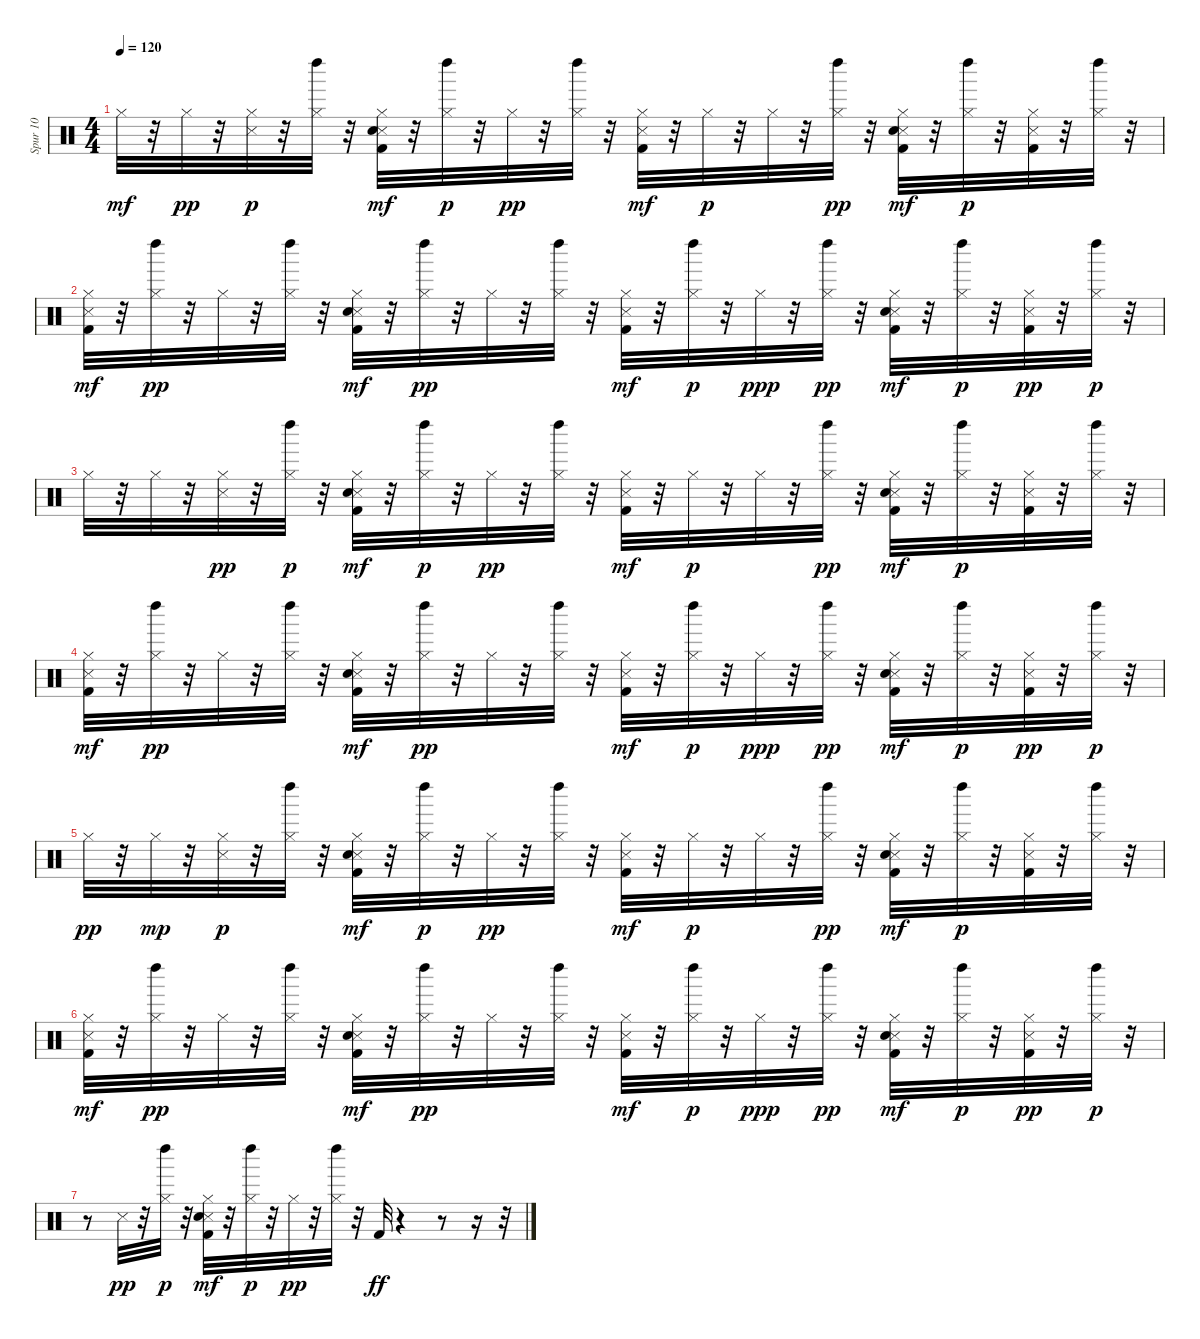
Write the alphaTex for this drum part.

\track ("Spur 10" "Spur 10") {instrument percussion}
\staff {score}
\articulation defaults
\ts (4 4)
\tempo 120
\clef neutral
\ks c "Hi-Hat (closed)".32{dy mf}
r.32 "Hi-Hat (closed)".32{dy pp} r.32 ("Snare (side stick) 3" "Hi-Hat (closed)").32{dy p} r.32 ("Hi-Hat (closed)" "Left Maraca (hit)").32 r.32 ("Kick (hit) 2" "Snare (side stick) 3" "Hand Clap (hit)" "Hi-Hat (closed)").32{dy mf} r.32 ("Hi-Hat (closed)" "Left Maraca (hit)").32{dy p} r.32 "Hi-Hat (closed)".32{dy pp} r.32 ("Hi-Hat (closed)" "Left Maraca (hit)").32 r.32 ("Kick (hit) 2" "Snare (side stick) 3" "Hi-Hat (closed)").32{dy mf} r.32 "Hi-Hat (closed)".32{dy p} r.32 "Hi-Hat (closed)".32 r.32 ("Hi-Hat (closed)" "Left Maraca (hit)").32{dy pp} r.32 ("Kick (hit) 2" "Snare (side stick) 3" "Hand Clap (hit)" "Hi-Hat (closed)").32{dy mf} r.32 ("Hi-Hat (closed)" "Left Maraca (hit)").32{dy p} r.32 ("Kick (hit) 2" "Snare (side stick) 3" "Hi-Hat (closed)").32 r.32 ("Hi-Hat (closed)" "Left Maraca (hit)").32 r.32 |
("Kick (hit) 2" "Snare (side stick) 3" "Hi-Hat (closed)").32{dy mf} r.32 ("Hi-Hat (closed)" "Left Maraca (hit)").32{dy pp} r.32 "Hi-Hat (closed)".32 r.32 ("Hi-Hat (closed)" "Left Maraca (hit)").32 r.32 ("Kick (hit) 2" "Snare (side stick) 3" "Hand Clap (hit)" "Hi-Hat (closed)").32{dy mf} r.32 ("Hi-Hat (closed)" "Left Maraca (hit)").32{dy pp} r.32 "Hi-Hat (closed)".32 r.32 ("Hi-Hat (closed)" "Left Maraca (hit)").32 r.32 ("Kick (hit) 2" "Snare (side stick) 3" "Hi-Hat (closed)").32{dy mf} r.32 ("Hi-Hat (closed)" "Left Maraca (hit)").32{dy p} r.32 "Hi-Hat (closed)".32{dy ppp} r.32 ("Hi-Hat (closed)" "Left Maraca (hit)").32{dy pp} r.32 ("Kick (hit) 2" "Snare (side stick) 3" "Hand Clap (hit)" "Hi-Hat (closed)").32{dy mf} r.32 ("Hi-Hat (closed)" "Left Maraca (hit)").32{dy p} r.32 ("Kick (hit) 2" "Snare (side stick) 3" "Hi-Hat (closed)").32{dy pp} r.32 ("Hi-Hat (closed)" "Left Maraca (hit)").32{dy p} r.32 |
"Hi-Hat (closed)".32 r.32 "Hi-Hat (closed)".32 r.32 ("Snare (side stick) 3" "Hi-Hat (closed)").32{dy pp} r.32 ("Hi-Hat (closed)" "Left Maraca (hit)").32{dy p} r.32 ("Kick (hit) 2" "Snare (side stick) 3" "Hand Clap (hit)" "Hi-Hat (closed)").32{dy mf} r.32 ("Hi-Hat (closed)" "Left Maraca (hit)").32{dy p} r.32 "Hi-Hat (closed)".32{dy pp} r.32 ("Hi-Hat (closed)" "Left Maraca (hit)").32 r.32 ("Kick (hit) 2" "Snare (side stick) 3" "Hi-Hat (closed)").32{dy mf} r.32 "Hi-Hat (closed)".32{dy p} r.32 "Hi-Hat (closed)".32 r.32 ("Hi-Hat (closed)" "Left Maraca (hit)").32{dy pp} r.32 ("Kick (hit) 2" "Snare (side stick) 3" "Hand Clap (hit)" "Hi-Hat (closed)").32{dy mf} r.32 ("Hi-Hat (closed)" "Left Maraca (hit)").32{dy p} r.32 ("Kick (hit) 2" "Snare (side stick) 3" "Hi-Hat (closed)").32 r.32 ("Hi-Hat (closed)" "Left Maraca (hit)").32 r.32 |
("Kick (hit) 2" "Snare (side stick) 3" "Hi-Hat (closed)").32{dy mf} r.32 ("Hi-Hat (closed)" "Left Maraca (hit)").32{dy pp} r.32 "Hi-Hat (closed)".32 r.32 ("Hi-Hat (closed)" "Left Maraca (hit)").32 r.32 ("Kick (hit) 2" "Snare (side stick) 3" "Hand Clap (hit)" "Hi-Hat (closed)").32{dy mf} r.32 ("Hi-Hat (closed)" "Left Maraca (hit)").32{dy pp} r.32 "Hi-Hat (closed)".32 r.32 ("Hi-Hat (closed)" "Left Maraca (hit)").32 r.32 ("Kick (hit) 2" "Snare (side stick) 3" "Hi-Hat (closed)").32{dy mf} r.32 ("Hi-Hat (closed)" "Left Maraca (hit)").32{dy p} r.32 "Hi-Hat (closed)".32{dy ppp} r.32 ("Hi-Hat (closed)" "Left Maraca (hit)").32{dy pp} r.32 ("Kick (hit) 2" "Snare (side stick) 3" "Hand Clap (hit)" "Hi-Hat (closed)").32{dy mf} r.32 ("Hi-Hat (closed)" "Left Maraca (hit)").32{dy p} r.32 ("Kick (hit) 2" "Snare (side stick) 3" "Hi-Hat (closed)").32{dy pp} r.32 ("Hi-Hat (closed)" "Left Maraca (hit)").32{dy p} r.32 |
"Hi-Hat (closed)".32{dy pp} r.32 "Hi-Hat (closed)".32{dy mp} r.32 ("Snare (side stick) 3" "Hi-Hat (closed)").32{dy p} r.32 ("Hi-Hat (closed)" "Left Maraca (hit)").32 r.32 ("Kick (hit) 2" "Snare (side stick) 3" "Hand Clap (hit)" "Hi-Hat (closed)").32{dy mf} r.32 ("Hi-Hat (closed)" "Left Maraca (hit)").32{dy p} r.32 "Hi-Hat (closed)".32{dy pp} r.32 ("Hi-Hat (closed)" "Left Maraca (hit)").32 r.32 ("Kick (hit) 2" "Snare (side stick) 3" "Hi-Hat (closed)").32{dy mf} r.32 "Hi-Hat (closed)".32{dy p} r.32 "Hi-Hat (closed)".32 r.32 ("Hi-Hat (closed)" "Left Maraca (hit)").32{dy pp} r.32 ("Kick (hit) 2" "Snare (side stick) 3" "Hand Clap (hit)" "Hi-Hat (closed)").32{dy mf} r.32 ("Hi-Hat (closed)" "Left Maraca (hit)").32{dy p} r.32 ("Kick (hit) 2" "Snare (side stick) 3" "Hi-Hat (closed)").32 r.32 ("Hi-Hat (closed)" "Left Maraca (hit)").32 r.32 |
("Kick (hit) 2" "Snare (side stick) 3" "Hi-Hat (closed)").32{dy mf} r.32 ("Hi-Hat (closed)" "Left Maraca (hit)").32{dy pp} r.32 "Hi-Hat (closed)".32 r.32 ("Hi-Hat (closed)" "Left Maraca (hit)").32 r.32 ("Kick (hit) 2" "Snare (side stick) 3" "Hand Clap (hit)" "Hi-Hat (closed)").32{dy mf} r.32 ("Hi-Hat (closed)" "Left Maraca (hit)").32{dy pp} r.32 "Hi-Hat (closed)".32 r.32 ("Hi-Hat (closed)" "Left Maraca (hit)").32 r.32 ("Kick (hit) 2" "Snare (side stick) 3" "Hi-Hat (closed)").32{dy mf} r.32 ("Hi-Hat (closed)" "Left Maraca (hit)").32{dy p} r.32 "Hi-Hat (closed)".32{dy ppp} r.32 ("Hi-Hat (closed)" "Left Maraca (hit)").32{dy pp} r.32 ("Kick (hit) 2" "Snare (side stick) 3" "Hand Clap (hit)" "Hi-Hat (closed)").32{dy mf} r.32 ("Hi-Hat (closed)" "Left Maraca (hit)").32{dy p} r.32 ("Kick (hit) 2" "Snare (side stick) 3" "Hi-Hat (closed)").32{dy pp} r.32 ("Hi-Hat (closed)" "Left Maraca (hit)").32{dy p} r.32 |
r.8 "Snare (side stick) 3".32{dy pp} r.32 ("Hi-Hat (closed)" "Left Maraca (hit)").32{dy p} r.32 ("Kick (hit) 2" "Snare (side stick) 3" "Hand Clap (hit)" "Hi-Hat (closed)").32{dy mf} r.32 ("Hi-Hat (closed)" "Left Maraca (hit)").32{dy p} r.32 "Hi-Hat (closed)".32{dy pp} r.32 ("Hi-Hat (closed)" "Left Maraca (hit)").32 r.32 "Kick (hit) 2".32{dy ff} r.4 r.8 r.16 r.32
